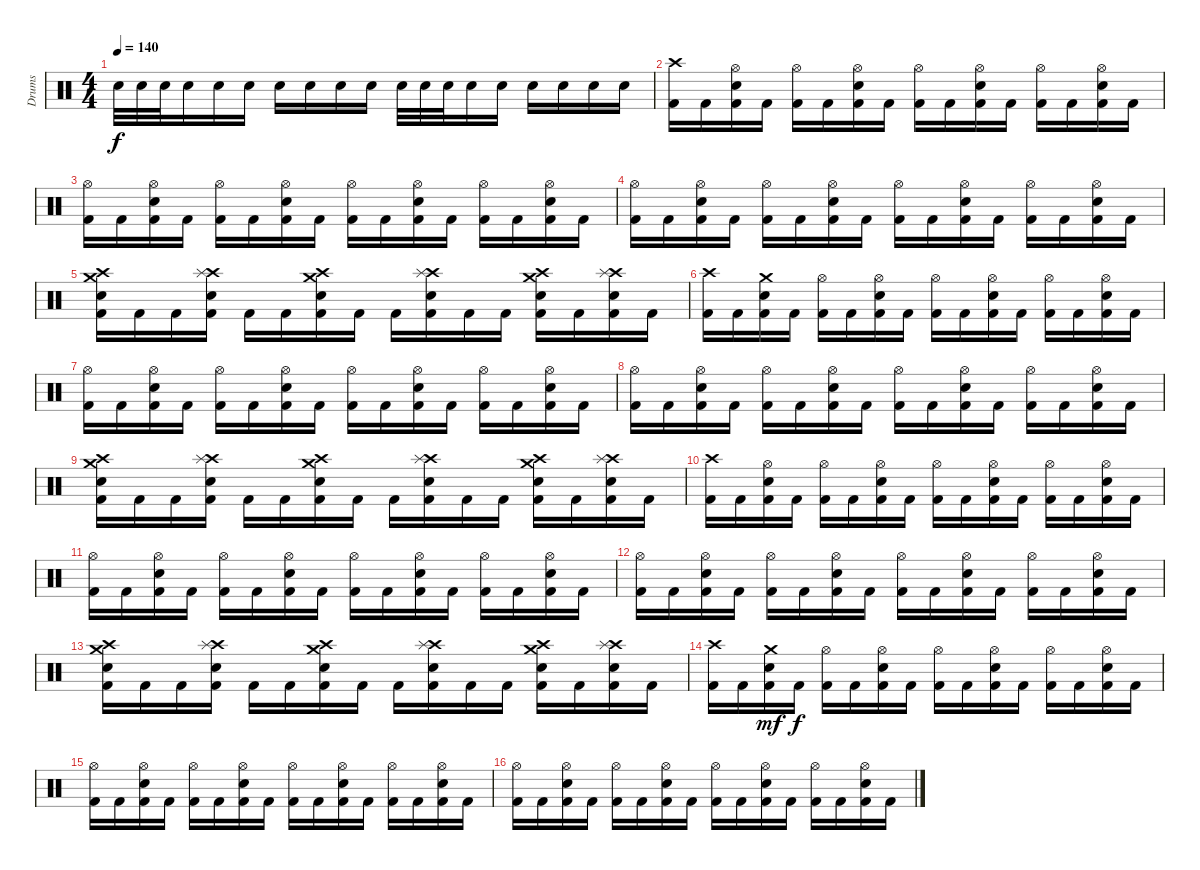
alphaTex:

\track ("Drums" "Drums") {instrument percussion}
\staff {score}
\articulation defaults
\ts (4 4)
\tempo 140
\clef neutral
\ks c "Electric Snare (hit)".32{dy f} "Electric Snare (hit)".32 "Electric Snare (hit)".32 "Electric Snare (hit)".16 "Electric Snare (hit)".16 "Electric Snare (hit)".16 "Electric Snare (hit)".16 "Electric Snare (hit)".16 "Electric Snare (hit)".16 "Electric Snare (hit)".16 "Electric Snare (hit)".32 "Electric Snare (hit)".32 "Electric Snare (hit)".32 "Electric Snare (hit)".16 "Electric Snare (hit)".16 "Electric Snare (hit)".16 "Electric Snare (hit)".16 "Electric Snare (hit)".16 "Electric Snare (hit)".16
|
("Crash high (hit)" "Kick (hit) 2").16 "Kick (hit) 2".16 ("Hi-Hat (open)" "Electric Snare (hit)" "Kick (hit) 2").16 "Kick (hit) 2".16 ("Hi-Hat (open)" "Kick (hit) 2").16 "Kick (hit) 2".16 ("Hi-Hat (open)" "Electric Snare (hit)" "Kick (hit) 2").16 "Kick (hit) 2".16 ("Hi-Hat (open)" "Kick (hit) 2").16 "Kick (hit) 2".16 ("Hi-Hat (open)" "Electric Snare (hit)" "Kick (hit) 2").16 "Kick (hit) 2".16 ("Hi-Hat (open)" "Kick (hit) 2").16 "Kick (hit) 2".16 ("Hi-Hat (open)" "Electric Snare (hit)" "Kick (hit) 2").16 "Kick (hit) 2".16 |
("Hi-Hat (open)" "Kick (hit) 2").16 "Kick (hit) 2".16 ("Hi-Hat (open)" "Electric Snare (hit)" "Kick (hit) 2").16 "Kick (hit) 2".16 ("Hi-Hat (open)" "Kick (hit) 2").16 "Kick (hit) 2".16 ("Hi-Hat (open)" "Electric Snare (hit)" "Kick (hit) 2").16 "Kick (hit) 2".16 ("Hi-Hat (open)" "Kick (hit) 2").16 "Kick (hit) 2".16 ("Hi-Hat (open)" "Electric Snare (hit)" "Kick (hit) 2").16 "Kick (hit) 2".16 ("Hi-Hat (open)" "Kick (hit) 2").16 "Kick (hit) 2".16 ("Hi-Hat (open)" "Electric Snare (hit)" "Kick (hit) 2").16 "Kick (hit) 2".16 |
("Hi-Hat (open)" "Kick (hit) 2").16 "Kick (hit) 2".16 ("Hi-Hat (open)" "Electric Snare (hit)" "Kick (hit) 2").16 "Kick (hit) 2".16 ("Hi-Hat (open)" "Kick (hit) 2").16 "Kick (hit) 2".16 ("Hi-Hat (open)" "Electric Snare (hit)" "Kick (hit) 2").16 "Kick (hit) 2".16 ("Hi-Hat (open)" "Kick (hit) 2").16 "Kick (hit) 2".16 ("Hi-Hat (open)" "Electric Snare (hit)" "Kick (hit) 2").16 "Kick (hit) 2".16 ("Hi-Hat (open)" "Kick (hit) 2").16 "Kick (hit) 2".16 ("Hi-Hat (open)" "Electric Snare (hit)" "Kick (hit) 2").16 "Kick (hit) 2".16 |
("Crash high (hit)" "Crash medium (hit)" "Electric Snare (hit)" "Kick (hit) 2").16 "Kick (hit) 2".16 "Kick (hit) 2".16 ("Crash high (hit)" "Splash (hit)" "Electric Snare (hit)" "Kick (hit) 2").16 "Kick (hit) 2".16 "Kick (hit) 2".16 ("Crash high (hit)" "Crash medium (hit)" "Electric Snare (hit)" "Kick (hit) 2").16 "Kick (hit) 2".16 "Kick (hit) 2".16 ("Crash high (hit)" "Splash (hit)" "Electric Snare (hit)" "Kick (hit) 2").16 "Kick (hit) 2".16 "Kick (hit) 2".16 ("Crash high (hit)" "Crash medium (hit)" "Electric Snare (hit)" "Kick (hit) 2").16 "Kick (hit) 2".16 ("Crash high (hit)" "Splash (hit)" "Electric Snare (hit)" "Kick (hit) 2").16 "Kick (hit) 2".16 |
("Crash high (hit)" "Kick (hit) 2").16 "Kick (hit) 2".16 ("Crash medium (hit)" "Electric Snare (hit)" "Kick (hit) 2").16 "Kick (hit) 2".16 ("Hi-Hat (open)" "Kick (hit) 2").16 "Kick (hit) 2".16 ("Hi-Hat (open)" "Electric Snare (hit)" "Kick (hit) 2").16 "Kick (hit) 2".16 ("Hi-Hat (open)" "Kick (hit) 2").16 "Kick (hit) 2".16 ("Hi-Hat (open)" "Electric Snare (hit)" "Kick (hit) 2").16 "Kick (hit) 2".16 ("Hi-Hat (open)" "Kick (hit) 2").16 "Kick (hit) 2".16 ("Hi-Hat (open)" "Electric Snare (hit)" "Kick (hit) 2").16 "Kick (hit) 2".16 |
("Hi-Hat (open)" "Kick (hit) 2").16 "Kick (hit) 2".16 ("Hi-Hat (open)" "Electric Snare (hit)" "Kick (hit) 2").16 "Kick (hit) 2".16 ("Hi-Hat (open)" "Kick (hit) 2").16 "Kick (hit) 2".16 ("Hi-Hat (open)" "Electric Snare (hit)" "Kick (hit) 2").16 "Kick (hit) 2".16 ("Hi-Hat (open)" "Kick (hit) 2").16 "Kick (hit) 2".16 ("Hi-Hat (open)" "Electric Snare (hit)" "Kick (hit) 2").16 "Kick (hit) 2".16 ("Hi-Hat (open)" "Kick (hit) 2").16 "Kick (hit) 2".16 ("Hi-Hat (open)" "Electric Snare (hit)" "Kick (hit) 2").16 "Kick (hit) 2".16 |
("Hi-Hat (open)" "Kick (hit) 2").16 "Kick (hit) 2".16 ("Hi-Hat (open)" "Electric Snare (hit)" "Kick (hit) 2").16 "Kick (hit) 2".16 ("Hi-Hat (open)" "Kick (hit) 2").16 "Kick (hit) 2".16 ("Hi-Hat (open)" "Electric Snare (hit)" "Kick (hit) 2").16 "Kick (hit) 2".16 ("Hi-Hat (open)" "Kick (hit) 2").16 "Kick (hit) 2".16 ("Hi-Hat (open)" "Electric Snare (hit)" "Kick (hit) 2").16 "Kick (hit) 2".16 ("Hi-Hat (open)" "Kick (hit) 2").16 "Kick (hit) 2".16 ("Hi-Hat (open)" "Electric Snare (hit)" "Kick (hit) 2").16 "Kick (hit) 2".16 |
("Crash high (hit)" "Crash medium (hit)" "Electric Snare (hit)" "Kick (hit) 2").16 "Kick (hit) 2".16 "Kick (hit) 2".16 ("Crash high (hit)" "Splash (hit)" "Electric Snare (hit)" "Kick (hit) 2").16 "Kick (hit) 2".16 "Kick (hit) 2".16 ("Crash high (hit)" "Crash medium (hit)" "Electric Snare (hit)" "Kick (hit) 2").16 "Kick (hit) 2".16 "Kick (hit) 2".16 ("Crash high (hit)" "Splash (hit)" "Electric Snare (hit)" "Kick (hit) 2").16 "Kick (hit) 2".16 "Kick (hit) 2".16 ("Crash high (hit)" "Crash medium (hit)" "Electric Snare (hit)" "Kick (hit) 2").16 "Kick (hit) 2".16 ("Crash high (hit)" "Splash (hit)" "Electric Snare (hit)" "Kick (hit) 2").16 "Kick (hit) 2".16 |
("Crash high (hit)" "Kick (hit) 2").16 "Kick (hit) 2".16 ("Hi-Hat (open)" "Electric Snare (hit)" "Kick (hit) 2").16 "Kick (hit) 2".16 ("Hi-Hat (open)" "Kick (hit) 2").16 "Kick (hit) 2".16 ("Hi-Hat (open)" "Electric Snare (hit)" "Kick (hit) 2").16 "Kick (hit) 2".16 ("Hi-Hat (open)" "Kick (hit) 2").16 "Kick (hit) 2".16 ("Hi-Hat (open)" "Electric Snare (hit)" "Kick (hit) 2").16 "Kick (hit) 2".16 ("Hi-Hat (open)" "Kick (hit) 2").16 "Kick (hit) 2".16 ("Hi-Hat (open)" "Electric Snare (hit)" "Kick (hit) 2").16 "Kick (hit) 2".16 |
("Hi-Hat (open)" "Kick (hit) 2").16 "Kick (hit) 2".16 ("Hi-Hat (open)" "Electric Snare (hit)" "Kick (hit) 2").16 "Kick (hit) 2".16 ("Hi-Hat (open)" "Kick (hit) 2").16 "Kick (hit) 2".16 ("Hi-Hat (open)" "Electric Snare (hit)" "Kick (hit) 2").16 "Kick (hit) 2".16 ("Hi-Hat (open)" "Kick (hit) 2").16 "Kick (hit) 2".16 ("Hi-Hat (open)" "Electric Snare (hit)" "Kick (hit) 2").16 "Kick (hit) 2".16 ("Hi-Hat (open)" "Kick (hit) 2").16 "Kick (hit) 2".16 ("Hi-Hat (open)" "Electric Snare (hit)" "Kick (hit) 2").16 "Kick (hit) 2".16 |
("Hi-Hat (open)" "Kick (hit) 2").16 "Kick (hit) 2".16 ("Hi-Hat (open)" "Electric Snare (hit)" "Kick (hit) 2").16 "Kick (hit) 2".16 ("Hi-Hat (open)" "Kick (hit) 2").16 "Kick (hit) 2".16 ("Hi-Hat (open)" "Electric Snare (hit)" "Kick (hit) 2").16 "Kick (hit) 2".16 ("Hi-Hat (open)" "Kick (hit) 2").16 "Kick (hit) 2".16 ("Hi-Hat (open)" "Electric Snare (hit)" "Kick (hit) 2").16 "Kick (hit) 2".16 ("Hi-Hat (open)" "Kick (hit) 2").16 "Kick (hit) 2".16 ("Hi-Hat (open)" "Electric Snare (hit)" "Kick (hit) 2").16 "Kick (hit) 2".16 |
("Crash high (hit)" "Crash medium (hit)" "Electric Snare (hit)" "Kick (hit) 2").16 "Kick (hit) 2".16 "Kick (hit) 2".16 ("Crash high (hit)" "Splash (hit)" "Electric Snare (hit)" "Kick (hit) 2").16 "Kick (hit) 2".16 "Kick (hit) 2".16 ("Crash high (hit)" "Crash medium (hit)" "Electric Snare (hit)" "Kick (hit) 2").16 "Kick (hit) 2".16 "Kick (hit) 2".16 ("Crash high (hit)" "Splash (hit)" "Electric Snare (hit)" "Kick (hit) 2").16 "Kick (hit) 2".16 "Kick (hit) 2".16 ("Crash high (hit)" "Crash medium (hit)" "Electric Snare (hit)" "Kick (hit) 2").16 "Kick (hit) 2".16 ("Crash high (hit)" "Splash (hit)" "Electric Snare (hit)" "Kick (hit) 2").16 "Kick (hit) 2".16 |
("Crash high (hit)" "Kick (hit) 2").16 "Kick (hit) 2".16 ("Crash medium (hit)" "Electric Snare (hit)" "Kick (hit) 2").16{dy mf} "Kick (hit) 2".16{dy f} ("Hi-Hat (open)" "Kick (hit) 2").16 "Kick (hit) 2".16 ("Hi-Hat (open)" "Electric Snare (hit)" "Kick (hit) 2").16 "Kick (hit) 2".16 ("Hi-Hat (open)" "Kick (hit) 2").16 "Kick (hit) 2".16 ("Hi-Hat (open)" "Electric Snare (hit)" "Kick (hit) 2").16 "Kick (hit) 2".16 ("Hi-Hat (open)" "Kick (hit) 2").16 "Kick (hit) 2".16 ("Hi-Hat (open)" "Electric Snare (hit)" "Kick (hit) 2").16 "Kick (hit) 2".16 |
("Hi-Hat (open)" "Kick (hit) 2").16 "Kick (hit) 2".16 ("Hi-Hat (open)" "Electric Snare (hit)" "Kick (hit) 2").16 "Kick (hit) 2".16 ("Hi-Hat (open)" "Kick (hit) 2").16 "Kick (hit) 2".16 ("Hi-Hat (open)" "Electric Snare (hit)" "Kick (hit) 2").16 "Kick (hit) 2".16 ("Hi-Hat (open)" "Kick (hit) 2").16 "Kick (hit) 2".16 ("Hi-Hat (open)" "Electric Snare (hit)" "Kick (hit) 2").16 "Kick (hit) 2".16 ("Hi-Hat (open)" "Kick (hit) 2").16 "Kick (hit) 2".16 ("Hi-Hat (open)" "Electric Snare (hit)" "Kick (hit) 2").16 "Kick (hit) 2".16 |
("Hi-Hat (open)" "Kick (hit) 2").16 "Kick (hit) 2".16 ("Hi-Hat (open)" "Electric Snare (hit)" "Kick (hit) 2").16 "Kick (hit) 2".16 ("Hi-Hat (open)" "Kick (hit) 2").16 "Kick (hit) 2".16 ("Hi-Hat (open)" "Electric Snare (hit)" "Kick (hit) 2").16 "Kick (hit) 2".16 ("Hi-Hat (open)" "Kick (hit) 2").16 "Kick (hit) 2".16 ("Hi-Hat (open)" "Electric Snare (hit)" "Kick (hit) 2").16 "Kick (hit) 2".16 ("Hi-Hat (open)" "Kick (hit) 2").16 "Kick (hit) 2".16 ("Hi-Hat (open)" "Electric Snare (hit)" "Kick (hit) 2").16 "Kick (hit) 2".16
